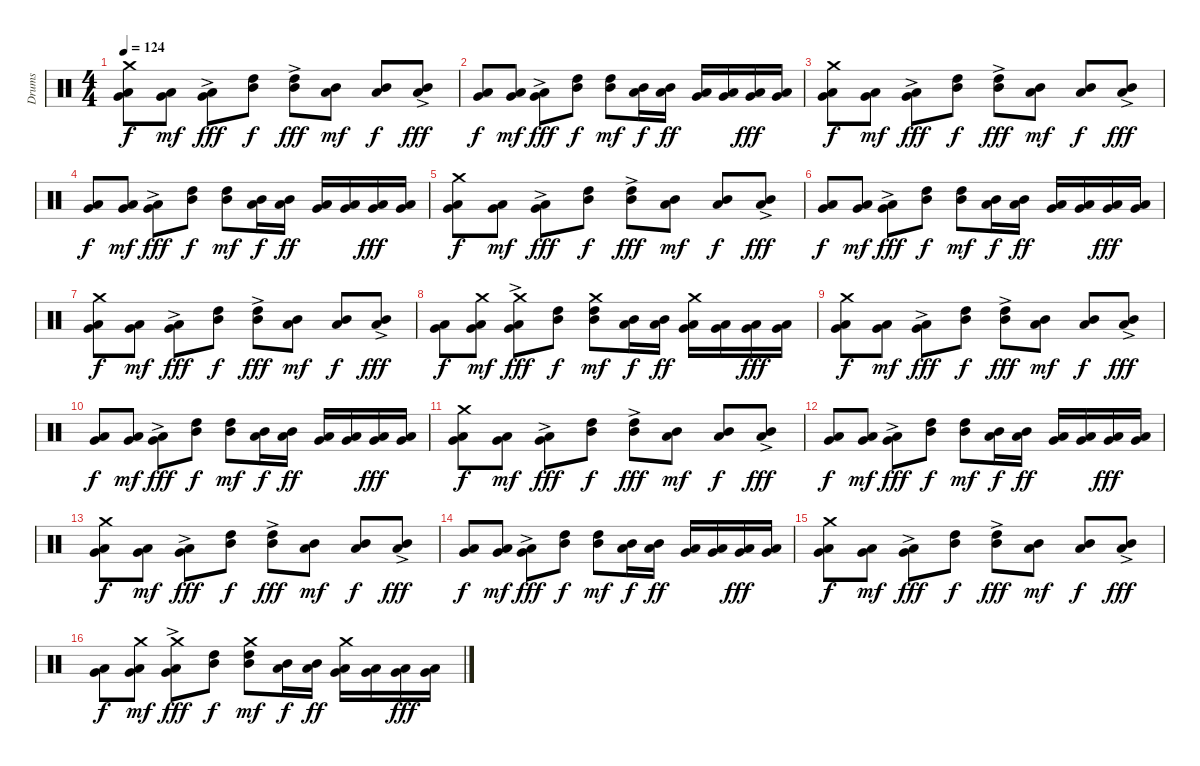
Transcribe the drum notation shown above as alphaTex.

\track ("Drums" "Drums") {instrument percussion}
\staff {score}
\articulation defaults
\ts (4 4)
\tempo 124
\clef neutral
\ks c
("Crash medium (hit)" "Low Tom (hit)" "Very Low Tom (hit)").8{dy f} ("Low Tom (hit)" "Very Low Tom (hit)").8{dy mf} ("Low Tom (hit)" "Very Low Tom (hit)"{ac}).8{dy fff} ("High Tom (hit)" "Mid Tom (hit)").8{dy f} ("High Tom (hit)" "Mid Tom (hit)"{ac}).8{dy fff} ("Mid Tom (hit)" "Low Tom (hit)").8{dy mf} ("Mid Tom (hit)" "Low Tom (hit)").8{dy f} ("Mid Tom (hit)" "Low Tom (hit)"{ac}).8{dy fff} |
("Low Tom (hit)" "Very Low Tom (hit)").8{dy f} ("Low Tom (hit)" "Very Low Tom (hit)").8{dy mf} ("Low Tom (hit)" "Very Low Tom (hit)"{ac}).8{dy fff} ("High Tom (hit)" "Mid Tom (hit)").8{dy f} ("High Tom (hit)" "Mid Tom (hit)").8{dy mf} ("Mid Tom (hit)" "Low Tom (hit)").16{dy f} ("Mid Tom (hit)" "Low Tom (hit)").16{dy ff} ("Low Tom (hit)" "Very Low Tom (hit)").16 ("Low Tom (hit)" "Very Low Tom (hit)").16 ("Very Low Tom (hit)" "Low Floor Tom (hit)").16{dy fff} ("Very Low Tom (hit)" "Low Floor Tom (hit)").16 |
("Crash medium (hit)" "Low Tom (hit)" "Very Low Tom (hit)").8{dy f} ("Low Tom (hit)" "Very Low Tom (hit)").8{dy mf} ("Low Tom (hit)" "Very Low Tom (hit)"{ac}).8{dy fff} ("High Tom (hit)" "Mid Tom (hit)").8{dy f} ("High Tom (hit)" "Mid Tom (hit)"{ac}).8{dy fff} ("Mid Tom (hit)" "Low Tom (hit)").8{dy mf} ("Mid Tom (hit)" "Low Tom (hit)").8{dy f} ("Mid Tom (hit)" "Low Tom (hit)"{ac}).8{dy fff} |
("Low Tom (hit)" "Very Low Tom (hit)").8{dy f} ("Low Tom (hit)" "Very Low Tom (hit)").8{dy mf} ("Low Tom (hit)" "Very Low Tom (hit)"{ac}).8{dy fff} ("High Tom (hit)" "Mid Tom (hit)").8{dy f} ("High Tom (hit)" "Mid Tom (hit)").8{dy mf} ("Mid Tom (hit)" "Low Tom (hit)").16{dy f} ("Mid Tom (hit)" "Low Tom (hit)").16{dy ff} ("Low Tom (hit)" "Very Low Tom (hit)").16 ("Low Tom (hit)" "Very Low Tom (hit)").16 ("Very Low Tom (hit)" "Low Floor Tom (hit)").16{dy fff} ("Very Low Tom (hit)" "Low Floor Tom (hit)").16 |
("Crash medium (hit)" "Low Tom (hit)" "Very Low Tom (hit)").8{dy f} ("Low Tom (hit)" "Very Low Tom (hit)").8{dy mf} ("Low Tom (hit)" "Very Low Tom (hit)"{ac}).8{dy fff} ("High Tom (hit)" "Mid Tom (hit)").8{dy f} ("High Tom (hit)" "Mid Tom (hit)"{ac}).8{dy fff} ("Mid Tom (hit)" "Low Tom (hit)").8{dy mf} ("Mid Tom (hit)" "Low Tom (hit)").8{dy f} ("Mid Tom (hit)" "Low Tom (hit)"{ac}).8{dy fff} |
("Low Tom (hit)" "Very Low Tom (hit)").8{dy f} ("Low Tom (hit)" "Very Low Tom (hit)").8{dy mf} ("Low Tom (hit)" "Very Low Tom (hit)"{ac}).8{dy fff} ("High Tom (hit)" "Mid Tom (hit)").8{dy f} ("High Tom (hit)" "Mid Tom (hit)").8{dy mf} ("Mid Tom (hit)" "Low Tom (hit)").16{dy f} ("Mid Tom (hit)" "Low Tom (hit)").16{dy ff} ("Low Tom (hit)" "Very Low Tom (hit)").16 ("Low Tom (hit)" "Very Low Tom (hit)").16 ("Very Low Tom (hit)" "Low Floor Tom (hit)").16{dy fff} ("Very Low Tom (hit)" "Low Floor Tom (hit)").16 |
("Crash medium (hit)" "Low Tom (hit)" "Very Low Tom (hit)").8{dy f} ("Low Tom (hit)" "Very Low Tom (hit)").8{dy mf} ("Low Tom (hit)" "Very Low Tom (hit)"{ac}).8{dy fff} ("High Tom (hit)" "Mid Tom (hit)").8{dy f} ("High Tom (hit)" "Mid Tom (hit)"{ac}).8{dy fff} ("Mid Tom (hit)" "Low Tom (hit)").8{dy mf} ("Mid Tom (hit)" "Low Tom (hit)").8{dy f} ("Mid Tom (hit)" "Low Tom (hit)"{ac}).8{dy fff} |
("Low Tom (hit)" "Very Low Tom (hit)").8{dy f} ("Crash medium (hit)" "Low Tom (hit)" "Very Low Tom (hit)").8{dy mf} ("Crash medium (hit)" "Low Tom (hit)" "Very Low Tom (hit)"{ac}).8{dy fff} ("High Tom (hit)" "Mid Tom (hit)").8{dy f} ("Crash medium (hit)" "High Tom (hit)" "Mid Tom (hit)").8{dy mf} ("Mid Tom (hit)" "Low Tom (hit)").16{dy f} ("Mid Tom (hit)" "Low Tom (hit)").16{dy ff} ("Crash medium (hit)" "Low Tom (hit)" "Very Low Tom (hit)").16 ("Low Tom (hit)" "Very Low Tom (hit)").16 ("Very Low Tom (hit)" "Low Floor Tom (hit)").16{dy fff} ("Very Low Tom (hit)" "Low Floor Tom (hit)").16 |
("Crash medium (hit)" "Low Tom (hit)" "Very Low Tom (hit)").8{dy f} ("Low Tom (hit)" "Very Low Tom (hit)").8{dy mf} ("Low Tom (hit)" "Very Low Tom (hit)"{ac}).8{dy fff} ("High Tom (hit)" "Mid Tom (hit)").8{dy f} ("High Tom (hit)" "Mid Tom (hit)"{ac}).8{dy fff} ("Mid Tom (hit)" "Low Tom (hit)").8{dy mf} ("Mid Tom (hit)" "Low Tom (hit)").8{dy f} ("Mid Tom (hit)" "Low Tom (hit)"{ac}).8{dy fff} |
("Low Tom (hit)" "Very Low Tom (hit)").8{dy f} ("Low Tom (hit)" "Very Low Tom (hit)").8{dy mf} ("Low Tom (hit)" "Very Low Tom (hit)"{ac}).8{dy fff} ("High Tom (hit)" "Mid Tom (hit)").8{dy f} ("High Tom (hit)" "Mid Tom (hit)").8{dy mf} ("Mid Tom (hit)" "Low Tom (hit)").16{dy f} ("Mid Tom (hit)" "Low Tom (hit)").16{dy ff} ("Low Tom (hit)" "Very Low Tom (hit)").16 ("Low Tom (hit)" "Very Low Tom (hit)").16 ("Very Low Tom (hit)" "Low Floor Tom (hit)").16{dy fff} ("Very Low Tom (hit)" "Low Floor Tom (hit)").16 |
("Crash medium (hit)" "Low Tom (hit)" "Very Low Tom (hit)").8{dy f} ("Low Tom (hit)" "Very Low Tom (hit)").8{dy mf} ("Low Tom (hit)" "Very Low Tom (hit)"{ac}).8{dy fff} ("High Tom (hit)" "Mid Tom (hit)").8{dy f} ("High Tom (hit)" "Mid Tom (hit)"{ac}).8{dy fff} ("Mid Tom (hit)" "Low Tom (hit)").8{dy mf} ("Mid Tom (hit)" "Low Tom (hit)").8{dy f} ("Mid Tom (hit)" "Low Tom (hit)"{ac}).8{dy fff} |
("Low Tom (hit)" "Very Low Tom (hit)").8{dy f} ("Low Tom (hit)" "Very Low Tom (hit)").8{dy mf} ("Low Tom (hit)" "Very Low Tom (hit)"{ac}).8{dy fff} ("High Tom (hit)" "Mid Tom (hit)").8{dy f} ("High Tom (hit)" "Mid Tom (hit)").8{dy mf} ("Mid Tom (hit)" "Low Tom (hit)").16{dy f} ("Mid Tom (hit)" "Low Tom (hit)").16{dy ff} ("Low Tom (hit)" "Very Low Tom (hit)").16 ("Low Tom (hit)" "Very Low Tom (hit)").16 ("Very Low Tom (hit)" "Low Floor Tom (hit)").16{dy fff} ("Very Low Tom (hit)" "Low Floor Tom (hit)").16 |
("Crash medium (hit)" "Low Tom (hit)" "Very Low Tom (hit)").8{dy f} ("Low Tom (hit)" "Very Low Tom (hit)").8{dy mf} ("Low Tom (hit)" "Very Low Tom (hit)"{ac}).8{dy fff} ("High Tom (hit)" "Mid Tom (hit)").8{dy f} ("High Tom (hit)" "Mid Tom (hit)"{ac}).8{dy fff} ("Mid Tom (hit)" "Low Tom (hit)").8{dy mf} ("Mid Tom (hit)" "Low Tom (hit)").8{dy f} ("Mid Tom (hit)" "Low Tom (hit)"{ac}).8{dy fff} |
("Low Tom (hit)" "Very Low Tom (hit)").8{dy f} ("Low Tom (hit)" "Very Low Tom (hit)").8{dy mf} ("Low Tom (hit)" "Very Low Tom (hit)"{ac}).8{dy fff} ("High Tom (hit)" "Mid Tom (hit)").8{dy f} ("High Tom (hit)" "Mid Tom (hit)").8{dy mf} ("Mid Tom (hit)" "Low Tom (hit)").16{dy f} ("Mid Tom (hit)" "Low Tom (hit)").16{dy ff} ("Low Tom (hit)" "Very Low Tom (hit)").16 ("Low Tom (hit)" "Very Low Tom (hit)").16 ("Very Low Tom (hit)" "Low Floor Tom (hit)").16{dy fff} ("Very Low Tom (hit)" "Low Floor Tom (hit)").16 |
("Crash medium (hit)" "Low Tom (hit)" "Very Low Tom (hit)").8{dy f} ("Low Tom (hit)" "Very Low Tom (hit)").8{dy mf} ("Low Tom (hit)" "Very Low Tom (hit)"{ac}).8{dy fff} ("High Tom (hit)" "Mid Tom (hit)").8{dy f} ("High Tom (hit)" "Mid Tom (hit)"{ac}).8{dy fff} ("Mid Tom (hit)" "Low Tom (hit)").8{dy mf} ("Mid Tom (hit)" "Low Tom (hit)").8{dy f} ("Mid Tom (hit)" "Low Tom (hit)"{ac}).8{dy fff} |
("Low Tom (hit)" "Very Low Tom (hit)").8{dy f} ("Crash medium (hit)" "Low Tom (hit)" "Very Low Tom (hit)").8{dy mf} ("Crash medium (hit)" "Low Tom (hit)" "Very Low Tom (hit)"{ac}).8{dy fff} ("High Tom (hit)" "Mid Tom (hit)").8{dy f} ("Crash medium (hit)" "High Tom (hit)" "Mid Tom (hit)").8{dy mf} ("Mid Tom (hit)" "Low Tom (hit)").16{dy f} ("Mid Tom (hit)" "Low Tom (hit)").16{dy ff} ("Crash medium (hit)" "Low Tom (hit)" "Very Low Tom (hit)").16 ("Low Tom (hit)" "Very Low Tom (hit)").16 ("Very Low Tom (hit)" "Low Floor Tom (hit)").16{dy fff} ("Very Low Tom (hit)" "Low Floor Tom (hit)").16
